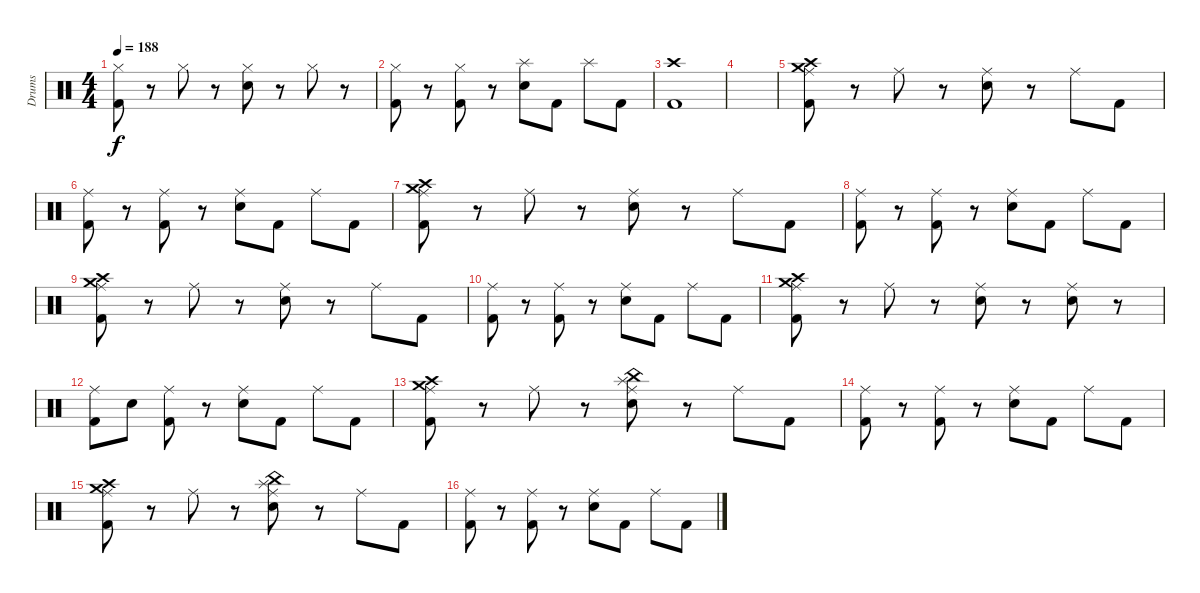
\track ("Drums" "Drums") {instrument percussion}
\staff {score}
\articulation defaults
\ts (4 4)
\tempo 188
\clef neutral
\ks c
("Hi-Hat (closed)" "Kick (hit) 2").8{dy f} r.8 "Hi-Hat (closed)".8 r.8 ("Hi-Hat (closed)" "Snare (hit) 2").8 r.8 "Hi-Hat (closed)".8 r.8 |
("Hi-Hat (closed)" "Kick (hit) 2").8 r.8 ("Hi-Hat (closed)" "Kick (hit) 2").8 r.8 ("Splash (hit)" "Snare (hit) 2").8 "Kick (hit) 2".8 "Splash (hit)".8 "Kick (hit) 2".8 |
("Crash high (hit)" "Kick (hit) 2").1 |
|
("Crash medium (hit)" "Crash high (hit)" "Ride (middle)" "Kick (hit) 2").8 r.8 "Ride (middle)".8 r.8 ("Ride (middle)" "Snare (hit) 2").8 r.8 "Ride (middle)".8 "Kick (hit) 2".8 |
("Ride (middle)" "Kick (hit) 2").8 r.8 ("Ride (middle)" "Kick (hit) 2").8 r.8 ("Ride (middle)" "Snare (hit) 2").8 "Kick (hit) 2".8 "Ride (middle)".8 "Kick (hit) 2".8 |
("Crash medium (hit)" "Crash high (hit)" "Ride (middle)" "Kick (hit) 2").8 r.8 "Ride (middle)".8 r.8 ("Ride (middle)" "Snare (hit) 2").8 r.8 "Ride (middle)".8 "Kick (hit) 2".8 |
("Ride (middle)" "Kick (hit) 2").8 r.8 ("Ride (middle)" "Kick (hit) 2").8 r.8 ("Ride (middle)" "Snare (hit) 2").8 "Kick (hit) 2".8 "Ride (middle)".8 "Kick (hit) 2".8 |
("Crash medium (hit)" "Crash high (hit)" "Ride (middle)" "Kick (hit) 2").8 r.8 "Ride (middle)".8 r.8 ("Ride (middle)" "Snare (hit) 2").8 r.8 "Ride (middle)".8 "Kick (hit) 2".8 |
("Ride (middle)" "Kick (hit) 2").8 r.8 ("Ride (middle)" "Kick (hit) 2").8 r.8 ("Ride (middle)" "Snare (hit) 2").8 "Kick (hit) 2".8 "Ride (middle)".8 "Kick (hit) 2".8 |
("Crash medium (hit)" "Crash high (hit)" "Ride (middle)" "Kick (hit) 2").8 r.8 "Ride (middle)".8 r.8 ("Ride (middle)" "Snare (hit) 2").8 r.8 ("Ride (middle)" "Snare (hit) 2").8 r.8 |
("Ride (middle)" "Kick (hit) 2").8 "Snare (hit) 2".8 ("Ride (middle)" "Kick (hit) 2").8 r.8 ("Ride (middle)" "Snare (hit) 2").8 "Kick (hit) 2".8 "Ride (middle)".8 "Kick (hit) 2".8 |
("Crash medium (hit)" "Crash high (hit)" "Ride (middle)" "Kick (hit) 2").8 r.8 "Ride (middle)".8 r.8 ("Splash (hit)" "China (hit)" "Ride (middle)" "Snare (hit) 2").8 r.8 "Ride (middle)".8 "Kick (hit) 2".8 |
("Ride (middle)" "Kick (hit) 2").8 r.8 ("Ride (middle)" "Kick (hit) 2").8 r.8 ("Ride (middle)" "Snare (hit) 2").8 "Kick (hit) 2".8 "Ride (middle)".8 "Kick (hit) 2".8 |
("Crash medium (hit)" "Crash high (hit)" "Ride (middle)" "Kick (hit) 2").8 r.8 "Ride (middle)".8 r.8 ("Splash (hit)" "China (hit)" "Ride (middle)" "Snare (hit) 2").8 r.8 "Ride (middle)".8 "Kick (hit) 2".8 |
("Ride (middle)" "Kick (hit) 2").8 r.8 ("Ride (middle)" "Kick (hit) 2").8 r.8 ("Ride (middle)" "Snare (hit) 2").8 "Kick (hit) 2".8 "Ride (middle)".8 "Kick (hit) 2".8
